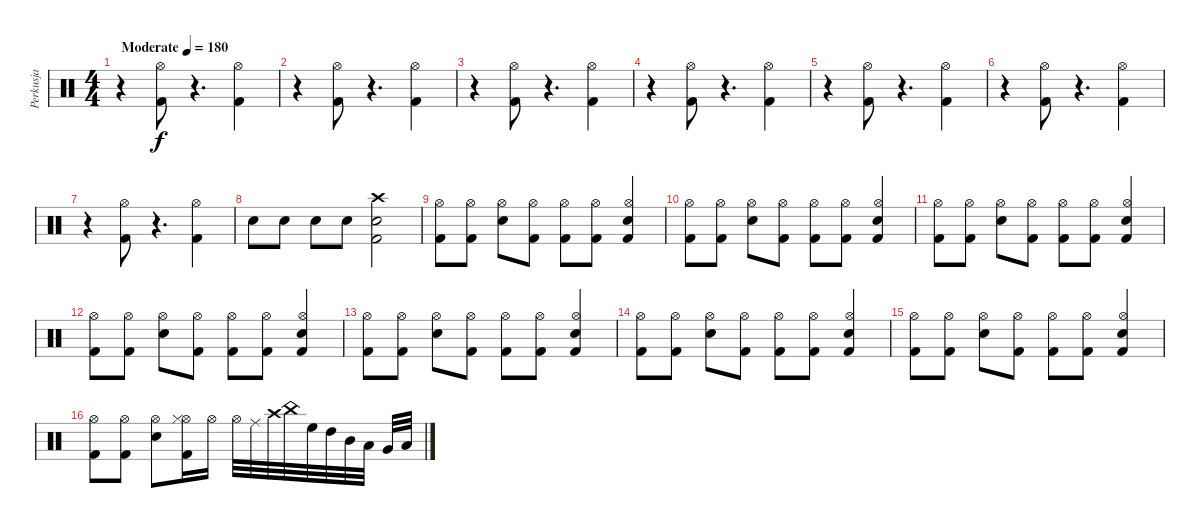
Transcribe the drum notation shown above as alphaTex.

\track ("Perkusja" "Perkusja") {instrument percussion}
\staff {score}
\articulation defaults
\ts (4 4)
\tempo (180 "Moderate")
\clef neutral
\ks c
r.4{dy f} ("Kick (hit) 2" "Hi-Hat (open)").8 r.4{d} ("Kick (hit) 2" "Hi-Hat (open)").4 |
r.4 ("Kick (hit) 2" "Hi-Hat (open)").8 r.4{d} ("Kick (hit) 2" "Hi-Hat (open)").4 |
r.4 ("Kick (hit) 2" "Hi-Hat (open)").8 r.4{d} ("Kick (hit) 2" "Hi-Hat (open)").4 |
r.4 ("Kick (hit) 2" "Hi-Hat (open)").8 r.4{d} ("Kick (hit) 2" "Hi-Hat (open)").4 |
r.4 ("Kick (hit) 2" "Hi-Hat (open)").8 r.4{d} ("Kick (hit) 2" "Hi-Hat (open)").4 |
r.4 ("Kick (hit) 2" "Hi-Hat (open)").8 r.4{d} ("Kick (hit) 2" "Hi-Hat (open)").4 |
r.4 ("Kick (hit) 2" "Hi-Hat (open)").8 r.4{d} ("Kick (hit) 2" "Hi-Hat (open)").4 |
"Snare (hit) 2".8 "Snare (hit) 2".8 "Snare (hit) 2".8 "Snare (hit) 2".8 ("Crash high (hit)" "Kick (hit) 2" "Snare (hit) 2").2 |
("Hi-Hat (open)" "Kick (hit) 2").8 ("Hi-Hat (open)" "Kick (hit) 2").8 ("Snare (hit) 2" "Hi-Hat (open)").8 ("Hi-Hat (open)" "Kick (hit) 2").8 ("Hi-Hat (open)" "Kick (hit) 2").8 ("Hi-Hat (open)" "Kick (hit) 2").8 ("Snare (hit) 2" "Hi-Hat (open)" "Kick (hit) 2").4 |
("Hi-Hat (open)" "Kick (hit) 2").8 ("Hi-Hat (open)" "Kick (hit) 2").8 ("Snare (hit) 2" "Hi-Hat (open)").8 ("Hi-Hat (open)" "Kick (hit) 2").8 ("Hi-Hat (open)" "Kick (hit) 2").8 ("Hi-Hat (open)" "Kick (hit) 2").8 ("Snare (hit) 2" "Hi-Hat (open)" "Kick (hit) 2").4 |
("Hi-Hat (open)" "Kick (hit) 2").8 ("Hi-Hat (open)" "Kick (hit) 2").8 ("Snare (hit) 2" "Hi-Hat (open)").8 ("Hi-Hat (open)" "Kick (hit) 2").8 ("Hi-Hat (open)" "Kick (hit) 2").8 ("Hi-Hat (open)" "Kick (hit) 2").8 ("Snare (hit) 2" "Hi-Hat (open)" "Kick (hit) 2").4 |
("Hi-Hat (open)" "Kick (hit) 2").8 ("Hi-Hat (open)" "Kick (hit) 2").8 ("Snare (hit) 2" "Hi-Hat (open)").8 ("Hi-Hat (open)" "Kick (hit) 2").8 ("Hi-Hat (open)" "Kick (hit) 2").8 ("Hi-Hat (open)" "Kick (hit) 2").8 ("Snare (hit) 2" "Hi-Hat (open)" "Kick (hit) 2").4 |
("Hi-Hat (open)" "Kick (hit) 2").8 ("Hi-Hat (open)" "Kick (hit) 2").8 ("Snare (hit) 2" "Hi-Hat (open)").8 ("Hi-Hat (open)" "Kick (hit) 2").8 ("Hi-Hat (open)" "Kick (hit) 2").8 ("Hi-Hat (open)" "Kick (hit) 2").8 ("Snare (hit) 2" "Hi-Hat (open)" "Kick (hit) 2").4 |
("Hi-Hat (open)" "Kick (hit) 2").8 ("Hi-Hat (open)" "Kick (hit) 2").8 ("Snare (hit) 2" "Hi-Hat (open)").8 ("Hi-Hat (open)" "Kick (hit) 2").8 ("Hi-Hat (open)" "Kick (hit) 2").8 ("Hi-Hat (open)" "Kick (hit) 2").8 ("Snare (hit) 2" "Hi-Hat (open)" "Kick (hit) 2").4 |
("Hi-Hat (open)" "Kick (hit) 2").8 ("Hi-Hat (open)" "Kick (hit) 2").8 ("Snare (hit) 2" "Hi-Hat (open)").8 ("Hi-Hat (open)" "Kick (hit) 2").8 ("Hi-Hat (open)" "Kick (hit) 2").8 ("Hi-Hat (open)" "Kick (hit) 2").8 ("Snare (hit) 2" "Hi-Hat (open)" "Kick (hit) 2").4 |
("Hi-Hat (open)" "Kick (hit) 2").8 ("Hi-Hat (open)" "Kick (hit) 2").8 ("Snare (hit) 2" "Hi-Hat (open)").8 ("Hi-Hat (open)" "Kick (hit) 2" "Hi-Hat (closed)").16 "Hi-Hat (open)".16 "Hi-Hat (open)".32 "Ride (middle)".32 "Crash high (hit)".32 "China (hit)".32 "High Floor Tom (hit)".32 "High Tom (hit)".32 "Mid Tom (hit)".32 "Low Tom (hit)".32 "Very Low Tom (hit)".32 "Low Floor Tom (hit)".32
